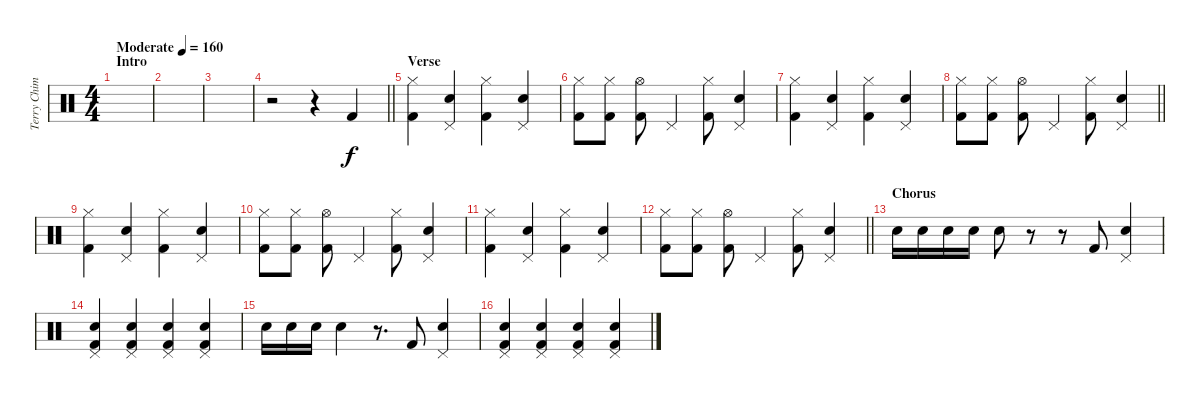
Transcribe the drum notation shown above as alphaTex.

\track ("Terry Chimes - Drums" "Terry Chim") {instrument percussion}
\staff {score}
\articulation defaults
\ts (4 4)
\section ("" "Intro")
\tempo (160 "Moderate")
\clef neutral
\ks c
|
|
|
\barLineRight lightlight
r.2 r.4 "Kick (hit) 2".4 |
\section ("" "Verse")
("Hi-Hat (closed)" "Kick (hit) 2").4 ("Pedal Hi-Hat (hit)" "Snare (hit) 2").4 ("Hi-Hat (closed)" "Kick (hit) 2").4 ("Pedal Hi-Hat (hit)" "Snare (hit) 2").4 |
("Hi-Hat (closed)" "Kick (hit) 2").8 ("Hi-Hat (closed)" "Kick (hit) 2").8 ("Hi-Hat (open)" "Kick (hit) 2").8 "Pedal Hi-Hat (hit)".4 ("Hi-Hat (closed)" "Kick (hit) 2").8 ("Pedal Hi-Hat (hit)" "Snare (hit) 2").4 |
("Hi-Hat (closed)" "Kick (hit) 2").4 ("Pedal Hi-Hat (hit)" "Snare (hit) 2").4 ("Hi-Hat (closed)" "Kick (hit) 2").4 ("Pedal Hi-Hat (hit)" "Snare (hit) 2").4 |
\barLineRight lightlight
("Hi-Hat (closed)" "Kick (hit) 2").8 ("Hi-Hat (closed)" "Kick (hit) 2").8 ("Hi-Hat (open)" "Kick (hit) 2").8 "Pedal Hi-Hat (hit)".4 ("Hi-Hat (closed)" "Kick (hit) 2").8 ("Pedal Hi-Hat (hit)" "Snare (hit) 2").4 |
("Hi-Hat (closed)" "Kick (hit) 2").4 ("Pedal Hi-Hat (hit)" "Snare (hit) 2").4 ("Hi-Hat (closed)" "Kick (hit) 2").4 ("Pedal Hi-Hat (hit)" "Snare (hit) 2").4 |
("Hi-Hat (closed)" "Kick (hit) 2").8 ("Hi-Hat (closed)" "Kick (hit) 2").8 ("Hi-Hat (open)" "Kick (hit) 2").8 "Pedal Hi-Hat (hit)".4 ("Hi-Hat (closed)" "Kick (hit) 2").8 ("Pedal Hi-Hat (hit)" "Snare (hit) 2").4 |
("Hi-Hat (closed)" "Kick (hit) 2").4 ("Pedal Hi-Hat (hit)" "Snare (hit) 2").4 ("Hi-Hat (closed)" "Kick (hit) 2").4 ("Pedal Hi-Hat (hit)" "Snare (hit) 2").4 |
\barLineRight lightlight
("Hi-Hat (closed)" "Kick (hit) 2").8 ("Hi-Hat (closed)" "Kick (hit) 2").8 ("Hi-Hat (open)" "Kick (hit) 2").8 "Pedal Hi-Hat (hit)".4 ("Hi-Hat (closed)" "Kick (hit) 2").8 ("Pedal Hi-Hat (hit)" "Snare (hit) 2").4 |
\section ("" "Chorus")
"Snare (hit) 2".16 "Snare (hit) 2".16 "Snare (hit) 2".16 "Snare (hit) 2".16 "Snare (hit) 2".8 r.8 r.8 "Kick (hit) 2".8 ("Pedal Hi-Hat (hit)" "Snare (hit) 2").4 |
("Pedal Hi-Hat (hit)" "Snare (hit) 2" "Kick (hit) 2").4 ("Pedal Hi-Hat (hit)" "Snare (hit) 2" "Kick (hit) 2").4 ("Pedal Hi-Hat (hit)" "Snare (hit) 2" "Kick (hit) 2").4 ("Pedal Hi-Hat (hit)" "Snare (hit) 2" "Kick (hit) 2").4 |
"Snare (hit) 2".16 "Snare (hit) 2".16 "Snare (hit) 2".16 "Snare (hit) 2".4 r.8{d} "Kick (hit) 2".8 ("Pedal Hi-Hat (hit)" "Snare (hit) 2").4 |
("Pedal Hi-Hat (hit)" "Snare (hit) 2" "Kick (hit) 2").4 ("Pedal Hi-Hat (hit)" "Snare (hit) 2" "Kick (hit) 2").4 ("Pedal Hi-Hat (hit)" "Snare (hit) 2" "Kick (hit) 2").4 ("Pedal Hi-Hat (hit)" "Snare (hit) 2" "Kick (hit) 2").4
